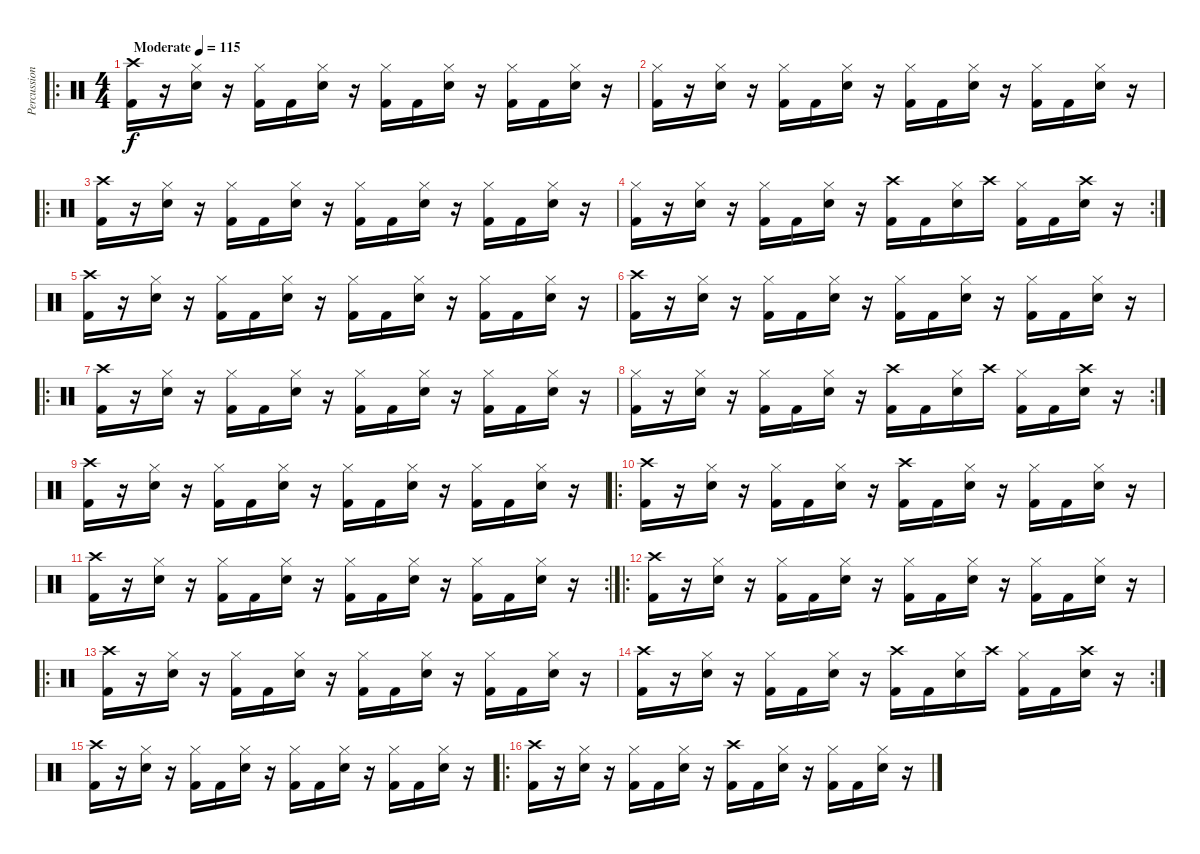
\track ("Percussion" "Percussion") {instrument percussion}
\staff {score}
\articulation defaults
\ro
\ts (4 4)
\tempo (115 "Moderate")
\clef neutral
\ks c
("Crash high (hit)" "Kick (hit) 2").16{dy f} r.16 ("Hi-Hat (closed)" "Snare (hit) 2").16 r.16 ("Hi-Hat (closed)" "Kick (hit) 2").16 "Kick (hit) 2".16 ("Hi-Hat (closed)" "Snare (hit) 2").16 r.16 ("Hi-Hat (closed)" "Kick (hit) 2").16 "Kick (hit) 2".16 ("Hi-Hat (closed)" "Snare (hit) 2").16 r.16 ("Hi-Hat (closed)" "Kick (hit) 2").16 "Kick (hit) 2".16 ("Hi-Hat (closed)" "Snare (hit) 2").16 r.16 |
("Hi-Hat (closed)" "Kick (hit) 2").16 r.16 ("Hi-Hat (closed)" "Snare (hit) 2").16 r.16 ("Hi-Hat (closed)" "Kick (hit) 2").16 "Kick (hit) 2".16 ("Hi-Hat (closed)" "Snare (hit) 2").16 r.16 ("Hi-Hat (closed)" "Kick (hit) 2").16 "Kick (hit) 2".16 ("Hi-Hat (closed)" "Snare (hit) 2").16 r.16 ("Hi-Hat (closed)" "Kick (hit) 2").16 "Kick (hit) 2".16 ("Hi-Hat (closed)" "Snare (hit) 2").16 r.16 |
\ro
("Crash high (hit)" "Kick (hit) 2").16 r.16 ("Hi-Hat (closed)" "Snare (hit) 2").16 r.16 ("Hi-Hat (closed)" "Kick (hit) 2").16 "Kick (hit) 2".16 ("Hi-Hat (closed)" "Snare (hit) 2").16 r.16 ("Hi-Hat (closed)" "Kick (hit) 2").16 "Kick (hit) 2".16 ("Hi-Hat (closed)" "Snare (hit) 2").16 r.16 ("Hi-Hat (closed)" "Kick (hit) 2").16 "Kick (hit) 2".16 ("Hi-Hat (closed)" "Snare (hit) 2").16 r.16 |
\rc 2
("Hi-Hat (closed)" "Kick (hit) 2").16 r.16 ("Hi-Hat (closed)" "Snare (hit) 2").16 r.16 ("Hi-Hat (closed)" "Kick (hit) 2").16 "Kick (hit) 2".16 ("Hi-Hat (closed)" "Snare (hit) 2").16 r.16 ("Crash high (hit)" "Kick (hit) 2").16 "Kick (hit) 2".16 ("Hi-Hat (closed)" "Snare (hit) 2").16 "Crash high (hit)".16 ("Hi-Hat (closed)" "Kick (hit) 2").16 "Kick (hit) 2".16 ("Crash high (hit)" "Snare (hit) 2").16 r.16 |
("Crash high (hit)" "Kick (hit) 2").16 r.16 ("Hi-Hat (closed)" "Snare (hit) 2").16 r.16 ("Hi-Hat (closed)" "Kick (hit) 2").16 "Kick (hit) 2".16 ("Hi-Hat (closed)" "Snare (hit) 2").16 r.16 ("Hi-Hat (closed)" "Kick (hit) 2").16 "Kick (hit) 2".16 ("Hi-Hat (closed)" "Snare (hit) 2").16 r.16 ("Hi-Hat (closed)" "Kick (hit) 2").16 "Kick (hit) 2".16 ("Hi-Hat (closed)" "Snare (hit) 2").16 r.16 |
("Crash high (hit)" "Kick (hit) 2").16 r.16 ("Hi-Hat (closed)" "Snare (hit) 2").16 r.16 ("Hi-Hat (closed)" "Kick (hit) 2").16 "Kick (hit) 2".16 ("Hi-Hat (closed)" "Snare (hit) 2").16 r.16 ("Hi-Hat (closed)" "Kick (hit) 2").16 "Kick (hit) 2".16 ("Hi-Hat (closed)" "Snare (hit) 2").16 r.16 ("Hi-Hat (closed)" "Kick (hit) 2").16 "Kick (hit) 2".16 ("Hi-Hat (closed)" "Snare (hit) 2").16 r.16 |
\ro
("Crash high (hit)" "Kick (hit) 2").16 r.16 ("Hi-Hat (closed)" "Snare (hit) 2").16 r.16 ("Hi-Hat (closed)" "Kick (hit) 2").16 "Kick (hit) 2".16 ("Hi-Hat (closed)" "Snare (hit) 2").16 r.16 ("Hi-Hat (closed)" "Kick (hit) 2").16 "Kick (hit) 2".16 ("Hi-Hat (closed)" "Snare (hit) 2").16 r.16 ("Hi-Hat (closed)" "Kick (hit) 2").16 "Kick (hit) 2".16 ("Hi-Hat (closed)" "Snare (hit) 2").16 r.16 |
\rc 2
("Hi-Hat (closed)" "Kick (hit) 2").16 r.16 ("Hi-Hat (closed)" "Snare (hit) 2").16 r.16 ("Hi-Hat (closed)" "Kick (hit) 2").16 "Kick (hit) 2".16 ("Hi-Hat (closed)" "Snare (hit) 2").16 r.16 ("Crash high (hit)" "Kick (hit) 2").16 "Kick (hit) 2".16 ("Hi-Hat (closed)" "Snare (hit) 2").16 "Crash high (hit)".16 ("Hi-Hat (closed)" "Kick (hit) 2").16 "Kick (hit) 2".16 ("Crash high (hit)" "Snare (hit) 2").16 r.16 |
("Crash high (hit)" "Kick (hit) 2").16 r.16 ("Hi-Hat (closed)" "Snare (hit) 2").16 r.16 ("Hi-Hat (closed)" "Kick (hit) 2").16 "Kick (hit) 2".16 ("Hi-Hat (closed)" "Snare (hit) 2").16 r.16 ("Hi-Hat (closed)" "Kick (hit) 2").16 "Kick (hit) 2".16 ("Hi-Hat (closed)" "Snare (hit) 2").16 r.16 ("Hi-Hat (closed)" "Kick (hit) 2").16 "Kick (hit) 2".16 ("Hi-Hat (closed)" "Snare (hit) 2").16 r.16 |
\ro
("Crash high (hit)" "Kick (hit) 2").16 r.16 ("Hi-Hat (closed)" "Snare (hit) 2").16 r.16 ("Hi-Hat (closed)" "Kick (hit) 2").16 "Kick (hit) 2".16 ("Hi-Hat (closed)" "Snare (hit) 2").16 r.16 ("Crash high (hit)" "Kick (hit) 2").16 "Kick (hit) 2".16 ("Hi-Hat (closed)" "Snare (hit) 2").16 r.16 ("Hi-Hat (closed)" "Kick (hit) 2").16 "Kick (hit) 2".16 ("Hi-Hat (closed)" "Snare (hit) 2").16 r.16 |
\rc 2
("Crash high (hit)" "Kick (hit) 2").16 r.16 ("Hi-Hat (closed)" "Snare (hit) 2").16 r.16 ("Hi-Hat (closed)" "Kick (hit) 2").16 "Kick (hit) 2".16 ("Hi-Hat (closed)" "Snare (hit) 2").16 r.16 ("Hi-Hat (closed)" "Kick (hit) 2").16 "Kick (hit) 2".16 ("Hi-Hat (closed)" "Snare (hit) 2").16 r.16 ("Hi-Hat (closed)" "Kick (hit) 2").16 "Kick (hit) 2".16 ("Hi-Hat (closed)" "Snare (hit) 2").16 r.16 |
\ro
("Crash high (hit)" "Kick (hit) 2").16 r.16 ("Hi-Hat (closed)" "Snare (hit) 2").16 r.16 ("Hi-Hat (closed)" "Kick (hit) 2").16 "Kick (hit) 2".16 ("Hi-Hat (closed)" "Snare (hit) 2").16 r.16 ("Hi-Hat (closed)" "Kick (hit) 2").16 "Kick (hit) 2".16 ("Hi-Hat (closed)" "Snare (hit) 2").16 r.16 ("Hi-Hat (closed)" "Kick (hit) 2").16 "Kick (hit) 2".16 ("Hi-Hat (closed)" "Snare (hit) 2").16 r.16 |
\ro
("Crash high (hit)" "Kick (hit) 2").16 r.16 ("Hi-Hat (closed)" "Snare (hit) 2").16 r.16 ("Hi-Hat (closed)" "Kick (hit) 2").16 "Kick (hit) 2".16 ("Hi-Hat (closed)" "Snare (hit) 2").16 r.16 ("Hi-Hat (closed)" "Kick (hit) 2").16 "Kick (hit) 2".16 ("Hi-Hat (closed)" "Snare (hit) 2").16 r.16 ("Hi-Hat (closed)" "Kick (hit) 2").16 "Kick (hit) 2".16 ("Hi-Hat (closed)" "Snare (hit) 2").16 r.16 |
\rc 2
("Crash high (hit)" "Kick (hit) 2").16 r.16 ("Hi-Hat (closed)" "Snare (hit) 2").16 r.16 ("Hi-Hat (closed)" "Kick (hit) 2").16 "Kick (hit) 2".16 ("Hi-Hat (closed)" "Snare (hit) 2").16 r.16 ("Crash high (hit)" "Kick (hit) 2").16 "Kick (hit) 2".16 ("Hi-Hat (closed)" "Snare (hit) 2").16 "Crash high (hit)".16 ("Hi-Hat (closed)" "Kick (hit) 2").16 "Kick (hit) 2".16 ("Crash high (hit)" "Snare (hit) 2").16 r.16 |
("Crash high (hit)" "Kick (hit) 2").16 r.16 ("Hi-Hat (closed)" "Snare (hit) 2").16 r.16 ("Hi-Hat (closed)" "Kick (hit) 2").16 "Kick (hit) 2".16 ("Hi-Hat (closed)" "Snare (hit) 2").16 r.16 ("Hi-Hat (closed)" "Kick (hit) 2").16 "Kick (hit) 2".16 ("Hi-Hat (closed)" "Snare (hit) 2").16 r.16 ("Hi-Hat (closed)" "Kick (hit) 2").16 "Kick (hit) 2".16 ("Hi-Hat (closed)" "Snare (hit) 2").16 r.16 |
\ro
("Crash high (hit)" "Kick (hit) 2").16 r.16 ("Hi-Hat (closed)" "Snare (hit) 2").16 r.16 ("Hi-Hat (closed)" "Kick (hit) 2").16 "Kick (hit) 2".16 ("Hi-Hat (closed)" "Snare (hit) 2").16 r.16 ("Crash high (hit)" "Kick (hit) 2").16 "Kick (hit) 2".16 ("Hi-Hat (closed)" "Snare (hit) 2").16 r.16 ("Hi-Hat (closed)" "Kick (hit) 2").16 "Kick (hit) 2".16 ("Hi-Hat (closed)" "Snare (hit) 2").16 r.16
